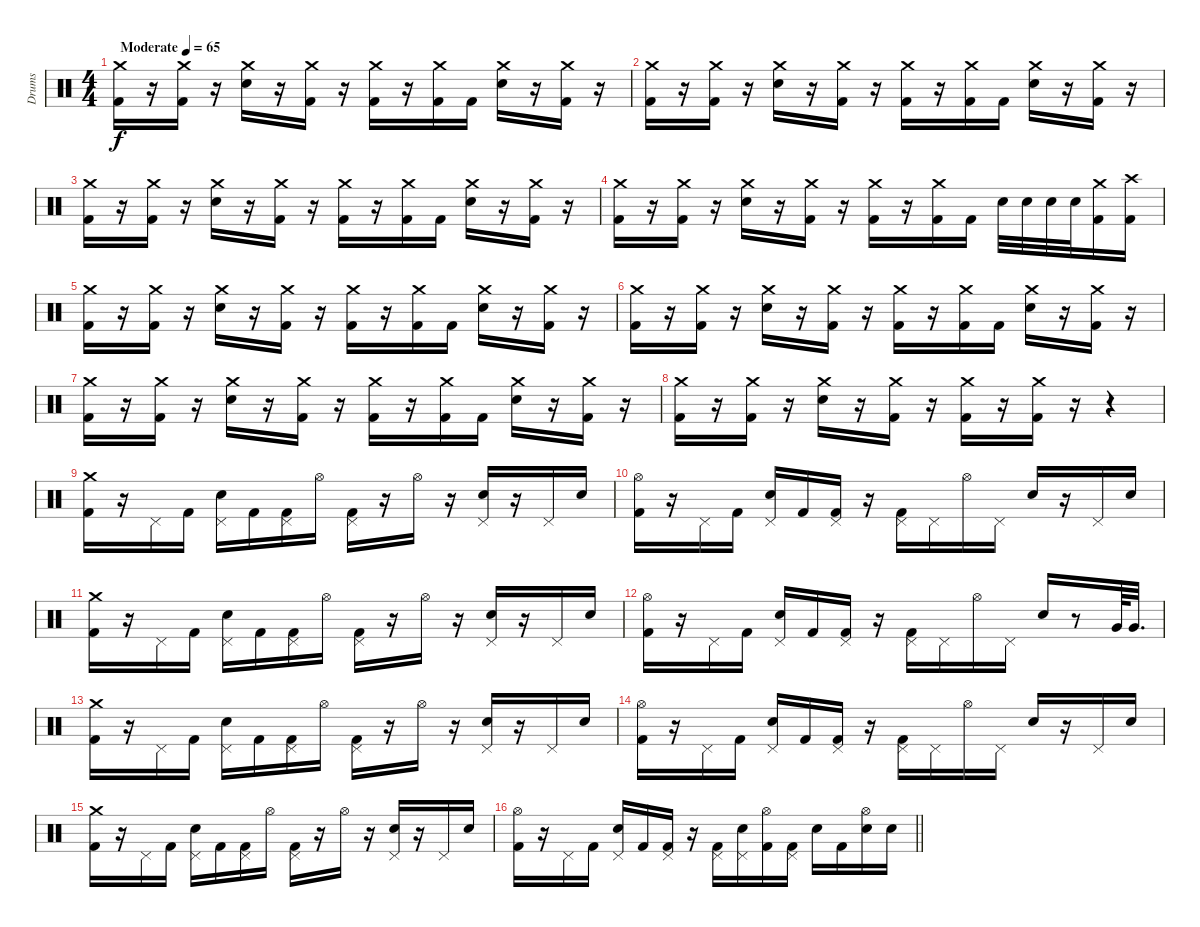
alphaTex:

\track ("Drums" "Drums") {instrument percussion}
\staff {score}
\articulation defaults
\ts (4 4)
\tempo (65 "Moderate")
\clef neutral
\ks c
("Crash medium (hit)" "Kick (hit) 2").16{dy f} r.16 ("Crash medium (hit)" "Kick (hit) 2").16 r.16 ("Crash medium (hit)" "Electric Snare (hit)").16 r.16 ("Crash medium (hit)" "Kick (hit) 2").16 r.16 ("Crash medium (hit)" "Kick (hit) 2").16 r.16 ("Crash medium (hit)" "Kick (hit) 2").16 "Kick (hit) 2".16 ("Crash medium (hit)" "Electric Snare (hit)").16 r.16 ("Crash medium (hit)" "Kick (hit) 2").16 r.16 |
("Crash medium (hit)" "Kick (hit) 2").16 r.16 ("Crash medium (hit)" "Kick (hit) 2").16 r.16 ("Crash medium (hit)" "Electric Snare (hit)").16 r.16 ("Crash medium (hit)" "Kick (hit) 2").16 r.16 ("Crash medium (hit)" "Kick (hit) 2").16 r.16 ("Crash medium (hit)" "Kick (hit) 2").16 "Kick (hit) 2".16 ("Crash medium (hit)" "Electric Snare (hit)").16 r.16 ("Crash medium (hit)" "Kick (hit) 2").16 r.16 |
("Crash medium (hit)" "Kick (hit) 2").16 r.16 ("Crash medium (hit)" "Kick (hit) 2").16 r.16 ("Crash medium (hit)" "Electric Snare (hit)").16 r.16 ("Crash medium (hit)" "Kick (hit) 2").16 r.16 ("Crash medium (hit)" "Kick (hit) 2").16 r.16 ("Crash medium (hit)" "Kick (hit) 2").16 "Kick (hit) 2".16 ("Crash medium (hit)" "Electric Snare (hit)").16 r.16 ("Crash medium (hit)" "Kick (hit) 2").16 r.16 |
("Crash medium (hit)" "Kick (hit) 2").16 r.16 ("Crash medium (hit)" "Kick (hit) 2").16 r.16 ("Crash medium (hit)" "Electric Snare (hit)").16 r.16 ("Crash medium (hit)" "Kick (hit) 2").16 r.16 ("Crash medium (hit)" "Kick (hit) 2").16 r.16 ("Crash medium (hit)" "Kick (hit) 2").16 "Kick (hit) 2".16 "Electric Snare (hit)".32 "Electric Snare (hit)".32 "Electric Snare (hit)".32 "Electric Snare (hit)".32 ("Crash medium (hit)" "Kick (hit) 2").16 ("Crash high (hit)" "Kick (hit) 2").16 |
("Crash medium (hit)" "Kick (hit) 2").16 r.16 ("Crash medium (hit)" "Kick (hit) 2").16 r.16 ("Crash medium (hit)" "Electric Snare (hit)").16 r.16 ("Crash medium (hit)" "Kick (hit) 2").16 r.16 ("Crash medium (hit)" "Kick (hit) 2").16 r.16 ("Crash medium (hit)" "Kick (hit) 2").16 "Kick (hit) 2".16 ("Crash medium (hit)" "Electric Snare (hit)").16 r.16 ("Crash medium (hit)" "Kick (hit) 2").16 r.16 |
("Crash medium (hit)" "Kick (hit) 2").16 r.16 ("Crash medium (hit)" "Kick (hit) 2").16 r.16 ("Crash medium (hit)" "Electric Snare (hit)").16 r.16 ("Crash medium (hit)" "Kick (hit) 2").16 r.16 ("Crash medium (hit)" "Kick (hit) 2").16 r.16 ("Crash medium (hit)" "Kick (hit) 2").16 "Kick (hit) 2".16 ("Crash medium (hit)" "Electric Snare (hit)").16 r.16 ("Crash medium (hit)" "Kick (hit) 2").16 r.16 |
("Crash medium (hit)" "Kick (hit) 2").16 r.16 ("Crash medium (hit)" "Kick (hit) 2").16 r.16 ("Crash medium (hit)" "Electric Snare (hit)").16 r.16 ("Crash medium (hit)" "Kick (hit) 2").16 r.16 ("Crash medium (hit)" "Kick (hit) 2").16 r.16 ("Crash medium (hit)" "Kick (hit) 2").16 "Kick (hit) 2".16 ("Crash medium (hit)" "Electric Snare (hit)").16 r.16 ("Crash medium (hit)" "Kick (hit) 2").16 r.16 |
("Crash medium (hit)" "Kick (hit) 2").16 r.16 ("Crash medium (hit)" "Kick (hit) 2").16 r.16 ("Crash medium (hit)" "Electric Snare (hit)").16 r.16 ("Crash medium (hit)" "Kick (hit) 2").16 r.16 ("Crash medium (hit)" "Kick (hit) 2").16 r.16 ("Crash medium (hit)" "Kick (hit) 2").16 r.16 r.4 |
("Crash medium (hit)" "Kick (hit) 2").16 r.16 "Pedal Hi-Hat (hit)".16 "Kick (hit) 2".16 ("Pedal Hi-Hat (hit)" "Electric Snare (hit)").16 "Kick (hit) 2".16 ("Pedal Hi-Hat (hit)" "Kick (hit) 2").16 "Hi-Hat (open)".16 ("Pedal Hi-Hat (hit)" "Kick (hit) 2").16 r.16 "Hi-Hat (open)".16 r.16 ("Pedal Hi-Hat (hit)" "Electric Snare (hit)").16 r.16 "Pedal Hi-Hat (hit)".16 "Electric Snare (hit)".16 |
("Hi-Hat (open)" "Kick (hit) 2").16 r.16 "Pedal Hi-Hat (hit)".16 "Kick (hit) 2".16 ("Pedal Hi-Hat (hit)" "Electric Snare (hit)").16 "Kick (hit) 2".16 ("Pedal Hi-Hat (hit)" "Kick (hit) 2").16 r.16 ("Pedal Hi-Hat (hit)" "Kick (hit) 2").16 "Pedal Hi-Hat (hit)".16 "Hi-Hat (open)".16 "Pedal Hi-Hat (hit)".16 "Electric Snare (hit)".16 r.16 "Pedal Hi-Hat (hit)".16 "Electric Snare (hit)".16 |
("Crash medium (hit)" "Kick (hit) 2").16 r.16 "Pedal Hi-Hat (hit)".16 "Kick (hit) 2".16 ("Pedal Hi-Hat (hit)" "Electric Snare (hit)").16 "Kick (hit) 2".16 ("Pedal Hi-Hat (hit)" "Kick (hit) 2").16 "Hi-Hat (open)".16 ("Pedal Hi-Hat (hit)" "Kick (hit) 2").16 r.16 "Hi-Hat (open)".16 r.16 ("Pedal Hi-Hat (hit)" "Electric Snare (hit)").16 r.16 "Pedal Hi-Hat (hit)".16 "Electric Snare (hit)".16 |
("Hi-Hat (open)" "Kick (hit) 2").16 r.16 "Pedal Hi-Hat (hit)".16 "Kick (hit) 2".16 ("Pedal Hi-Hat (hit)" "Electric Snare (hit)").16 "Kick (hit) 2".16 ("Pedal Hi-Hat (hit)" "Kick (hit) 2").16 r.16 ("Pedal Hi-Hat (hit)" "Kick (hit) 2").16 "Pedal Hi-Hat (hit)".16 "Hi-Hat (open)".16 "Pedal Hi-Hat (hit)".16 "Electric Snare (hit)".16 r.8 "Very Low Tom (hit)".64 "Very Low Tom (hit)".32{d} |
("Crash medium (hit)" "Kick (hit) 2").16 r.16 "Pedal Hi-Hat (hit)".16 "Kick (hit) 2".16 ("Pedal Hi-Hat (hit)" "Electric Snare (hit)").16 "Kick (hit) 2".16 ("Pedal Hi-Hat (hit)" "Kick (hit) 2").16 "Hi-Hat (open)".16 ("Pedal Hi-Hat (hit)" "Kick (hit) 2").16 r.16 "Hi-Hat (open)".16 r.16 ("Pedal Hi-Hat (hit)" "Electric Snare (hit)").16 r.16 "Pedal Hi-Hat (hit)".16 "Electric Snare (hit)".16 |
("Hi-Hat (open)" "Kick (hit) 2").16 r.16 "Pedal Hi-Hat (hit)".16 "Kick (hit) 2".16 ("Pedal Hi-Hat (hit)" "Electric Snare (hit)").16 "Kick (hit) 2".16 ("Pedal Hi-Hat (hit)" "Kick (hit) 2").16 r.16 ("Pedal Hi-Hat (hit)" "Kick (hit) 2").16 "Pedal Hi-Hat (hit)".16 "Hi-Hat (open)".16 "Pedal Hi-Hat (hit)".16 "Electric Snare (hit)".16 r.16 "Pedal Hi-Hat (hit)".16 "Electric Snare (hit)".16 |
("Crash medium (hit)" "Kick (hit) 2").16 r.16 "Pedal Hi-Hat (hit)".16 "Kick (hit) 2".16 ("Pedal Hi-Hat (hit)" "Electric Snare (hit)").16 "Kick (hit) 2".16 ("Pedal Hi-Hat (hit)" "Kick (hit) 2").16 "Hi-Hat (open)".16 ("Pedal Hi-Hat (hit)" "Kick (hit) 2").16 r.16 "Hi-Hat (open)".16 r.16 ("Pedal Hi-Hat (hit)" "Electric Snare (hit)").16 r.16 "Pedal Hi-Hat (hit)".16 "Electric Snare (hit)".16 |
\barLineRight lightlight
("Hi-Hat (open)" "Kick (hit) 2").16 r.16 "Pedal Hi-Hat (hit)".16 "Kick (hit) 2".16 ("Pedal Hi-Hat (hit)" "Electric Snare (hit)").16 "Kick (hit) 2".16 ("Pedal Hi-Hat (hit)" "Kick (hit) 2").16 r.16 ("Pedal Hi-Hat (hit)" "Kick (hit) 2").16 ("Pedal Hi-Hat (hit)" "Electric Snare (hit)").16 ("Hi-Hat (open)" "Kick (hit) 2").16 ("Pedal Hi-Hat (hit)" "Kick (hit) 2").16 "Electric Snare (hit)".16 "Kick (hit) 2".16 ("Hi-Hat (open)" "Electric Snare (hit)").16 "Electric Snare (hit)".16
